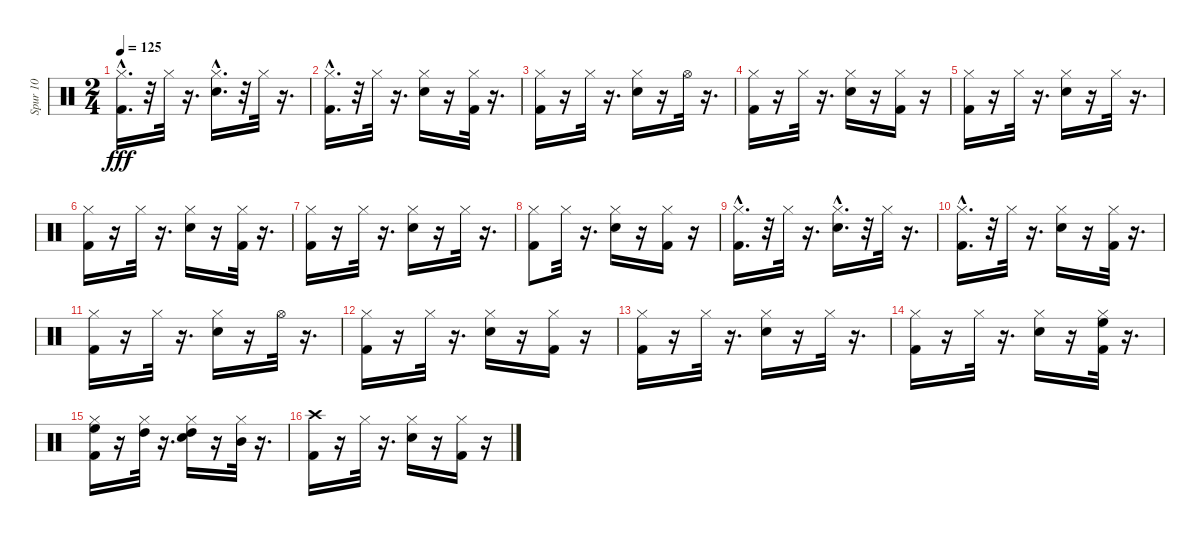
\track ("Spur 10" "Spur 10") {instrument percussion}
\staff {score}
\articulation defaults
\ts (2 4)
\tempo 125
\clef neutral
\ks c
("Kick (hit) 2"{hac} "Hi-Hat (closed)").16{d dy fff} r.32 "Hi-Hat (closed)".32 r.16{d} ("Snare (hit) 2"{hac} "Hi-Hat (closed)").16{d} r.32 "Hi-Hat (closed)".32 r.16{d} |
("Kick (hit) 2"{hac} "Hi-Hat (closed)").16{d} r.32 "Hi-Hat (closed)".32 r.16{d} ("Snare (hit) 2" "Hi-Hat (closed)").16 r.16 ("Kick (hit) 2" "Hi-Hat (closed)").32 r.16{d} |
("Kick (hit) 2" "Hi-Hat (closed)").16 r.16 "Hi-Hat (closed)".32 r.16{d} ("Snare (hit) 2" "Hi-Hat (closed)").16 r.16 "Hi-Hat (open)".32 r.16{d} |
("Kick (hit) 2" "Hi-Hat (closed)").16 r.16 "Hi-Hat (closed)".32 r.16{d} ("Snare (hit) 2" "Hi-Hat (closed)").16 r.16 ("Kick (hit) 2" "Hi-Hat (closed)").16 r.16 |
("Kick (hit) 2" "Hi-Hat (closed)").16 r.16 "Hi-Hat (closed)".32 r.16{d} ("Snare (hit) 2" "Hi-Hat (closed)").16 r.16 "Hi-Hat (closed)".32 r.16{d} |
("Kick (hit) 2" "Hi-Hat (closed)").16 r.16 "Hi-Hat (closed)".32 r.16{d} ("Snare (hit) 2" "Hi-Hat (closed)").16 r.16 ("Kick (hit) 2" "Hi-Hat (closed)").32 r.16{d} |
("Kick (hit) 2" "Hi-Hat (closed)").16 r.16 "Hi-Hat (closed)".32 r.16{d} ("Snare (hit) 2" "Hi-Hat (closed)").16 r.16 "Hi-Hat (closed)".32 r.16{d} |
("Kick (hit) 2" "Hi-Hat (closed)").8 "Hi-Hat (closed)".32 r.16{d} ("Snare (hit) 2" "Hi-Hat (closed)").16 r.16 ("Kick (hit) 2" "Hi-Hat (closed)").16 r.16 |
("Kick (hit) 2"{hac} "Hi-Hat (closed)").16{d} r.32 "Hi-Hat (closed)".32 r.16{d} ("Snare (hit) 2"{hac} "Hi-Hat (closed)").16{d} r.32 "Hi-Hat (closed)".32 r.16{d} |
("Kick (hit) 2"{hac} "Hi-Hat (closed)").16{d} r.32 "Hi-Hat (closed)".32 r.16{d} ("Snare (hit) 2" "Hi-Hat (closed)").16 r.16 ("Kick (hit) 2" "Hi-Hat (closed)").32 r.16{d} |
("Kick (hit) 2" "Hi-Hat (closed)").16 r.16 "Hi-Hat (closed)".32 r.16{d} ("Snare (hit) 2" "Hi-Hat (closed)").16 r.16 "Hi-Hat (open)".32 r.16{d} |
("Kick (hit) 2" "Hi-Hat (closed)").16 r.16 "Hi-Hat (closed)".32 r.16{d} ("Snare (hit) 2" "Hi-Hat (closed)").16 r.16 ("Kick (hit) 2" "Hi-Hat (closed)").16 r.16 |
("Kick (hit) 2" "Hi-Hat (closed)").16 r.16 "Hi-Hat (closed)".32 r.16{d} ("Snare (hit) 2" "Hi-Hat (closed)").16 r.16 "Hi-Hat (closed)".32 r.16{d} |
("Kick (hit) 2" "Hi-Hat (closed)").16 r.16 "Hi-Hat (closed)".32 r.16{d} ("Snare (hit) 2" "Hi-Hat (closed)").16 r.16 ("High Floor Tom (hit)" "Kick (hit) 2" "Hi-Hat (closed)").32 r.16{d} |
("High Floor Tom (hit)" "Kick (hit) 2" "Hi-Hat (closed)").16 r.16 ("High Tom (hit)" "Hi-Hat (closed)").32 r.16{d} ("High Tom (hit)" "Snare (hit) 2" "Hi-Hat (closed)").16 r.16 ("Mid Tom (hit)" "Hi-Hat (closed)").32 r.16{d} |
("Kick (hit) 2" "Crash high (hit)").16 r.16 "Hi-Hat (closed)".32 r.16{d} ("Snare (hit) 2" "Hi-Hat (closed)").16 r.16 ("Kick (hit) 2" "Hi-Hat (closed)").16 r.16
